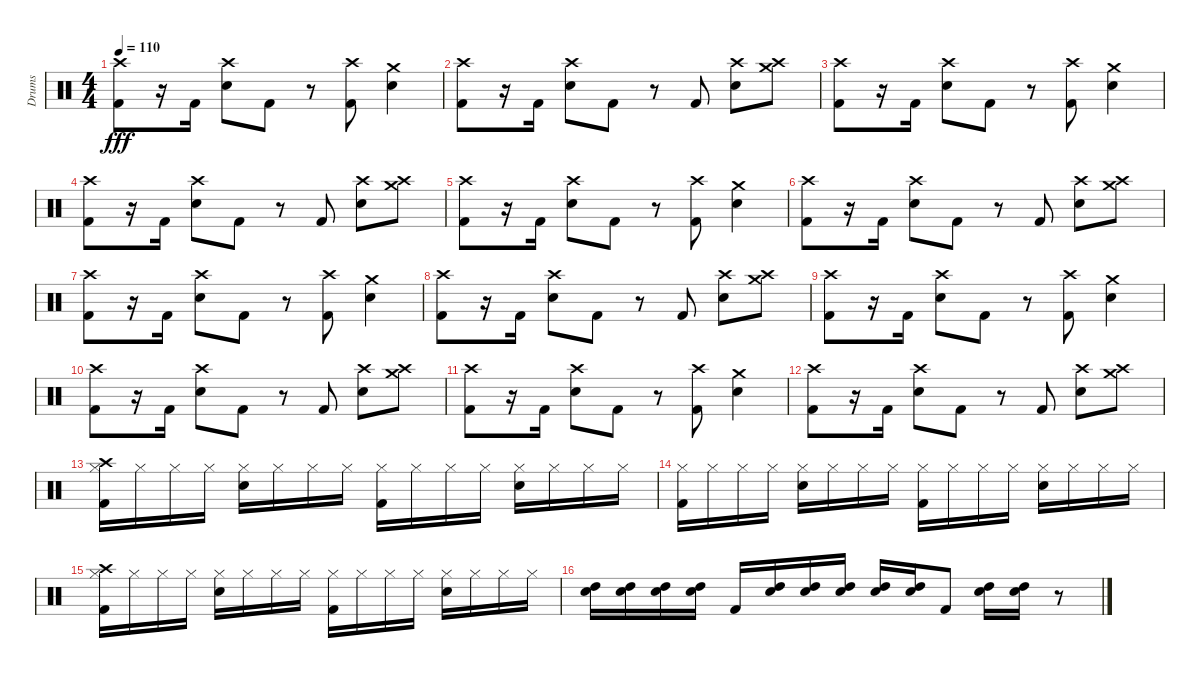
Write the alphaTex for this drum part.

\track ("Drums" "Drums") {instrument percussion}
\staff {score}
\articulation defaults
\ts (4 4)
\tempo 110
\clef neutral
\ks c
("Crash high (hit)" "Kick (hit) 2").8{dy fff} r.16 "Kick (hit) 2".16 ("Crash high (hit)" "Electric Snare (hit)").8 "Kick (hit) 2".8 r.8 ("Crash high (hit)" "Kick (hit) 2").8 ("Crash medium (hit)" "Electric Snare (hit)").4 |
("Crash high (hit)" "Kick (hit) 2").8 r.16 "Kick (hit) 2".16 ("Crash high (hit)" "Electric Snare (hit)").8 "Kick (hit) 2".8 r.8 "Kick (hit) 2".8 ("Crash high (hit)" "Electric Snare (hit)").8 ("Crash high (hit)" "Crash medium (hit)").8 |
("Crash high (hit)" "Kick (hit) 2").8 r.16 "Kick (hit) 2".16 ("Crash high (hit)" "Electric Snare (hit)").8 "Kick (hit) 2".8 r.8 ("Crash high (hit)" "Kick (hit) 2").8 ("Crash medium (hit)" "Electric Snare (hit)").4 |
("Crash high (hit)" "Kick (hit) 2").8 r.16 "Kick (hit) 2".16 ("Crash high (hit)" "Electric Snare (hit)").8 "Kick (hit) 2".8 r.8 "Kick (hit) 2".8 ("Crash high (hit)" "Electric Snare (hit)").8 ("Crash high (hit)" "Crash medium (hit)").8 |
("Crash high (hit)" "Kick (hit) 2").8 r.16 "Kick (hit) 2".16 ("Crash high (hit)" "Electric Snare (hit)").8 "Kick (hit) 2".8 r.8 ("Crash high (hit)" "Kick (hit) 2").8 ("Crash medium (hit)" "Electric Snare (hit)").4 |
("Crash high (hit)" "Kick (hit) 2").8 r.16 "Kick (hit) 2".16 ("Crash high (hit)" "Electric Snare (hit)").8 "Kick (hit) 2".8 r.8 "Kick (hit) 2".8 ("Crash high (hit)" "Electric Snare (hit)").8 ("Crash high (hit)" "Crash medium (hit)").8 |
("Crash high (hit)" "Kick (hit) 2").8 r.16 "Kick (hit) 2".16 ("Crash high (hit)" "Electric Snare (hit)").8 "Kick (hit) 2".8 r.8 ("Crash high (hit)" "Kick (hit) 2").8 ("Crash medium (hit)" "Electric Snare (hit)").4 |
("Crash high (hit)" "Kick (hit) 2").8 r.16 "Kick (hit) 2".16 ("Crash high (hit)" "Electric Snare (hit)").8 "Kick (hit) 2".8 r.8 "Kick (hit) 2".8 ("Crash high (hit)" "Electric Snare (hit)").8 ("Crash high (hit)" "Crash medium (hit)").8 |
("Crash high (hit)" "Kick (hit) 2").8 r.16 "Kick (hit) 2".16 ("Crash high (hit)" "Electric Snare (hit)").8 "Kick (hit) 2".8 r.8 ("Crash high (hit)" "Kick (hit) 2").8 ("Crash medium (hit)" "Electric Snare (hit)").4 |
("Crash high (hit)" "Kick (hit) 2").8 r.16 "Kick (hit) 2".16 ("Crash high (hit)" "Electric Snare (hit)").8 "Kick (hit) 2".8 r.8 "Kick (hit) 2".8 ("Crash high (hit)" "Electric Snare (hit)").8 ("Crash high (hit)" "Crash medium (hit)").8 |
("Crash high (hit)" "Kick (hit) 2").8 r.16 "Kick (hit) 2".16 ("Crash high (hit)" "Electric Snare (hit)").8 "Kick (hit) 2".8 r.8 ("Crash high (hit)" "Kick (hit) 2").8 ("Crash medium (hit)" "Electric Snare (hit)").4 |
("Crash high (hit)" "Kick (hit) 2").8 r.16 "Kick (hit) 2".16 ("Crash high (hit)" "Electric Snare (hit)").8 "Kick (hit) 2".8 r.8 "Kick (hit) 2".8 ("Crash high (hit)" "Electric Snare (hit)").8 ("Crash high (hit)" "Crash medium (hit)").8 |
("Crash high (hit)" "Hi-Hat (closed)" "Kick (hit) 2").16 "Hi-Hat (closed)".16 "Hi-Hat (closed)".16 "Hi-Hat (closed)".16 ("Hi-Hat (closed)" "Electric Snare (hit)").16 "Hi-Hat (closed)".16 "Hi-Hat (closed)".16 "Hi-Hat (closed)".16 ("Hi-Hat (closed)" "Kick (hit) 2").16 "Hi-Hat (closed)".16 "Hi-Hat (closed)".16 "Hi-Hat (closed)".16 ("Hi-Hat (closed)" "Electric Snare (hit)").16 "Hi-Hat (closed)".16 "Hi-Hat (closed)".16 "Hi-Hat (closed)".16 |
("Hi-Hat (closed)" "Kick (hit) 2").16 "Hi-Hat (closed)".16 "Hi-Hat (closed)".16 "Hi-Hat (closed)".16 ("Hi-Hat (closed)" "Electric Snare (hit)").16 "Hi-Hat (closed)".16 "Hi-Hat (closed)".16 "Hi-Hat (closed)".16 ("Hi-Hat (closed)" "Kick (hit) 2").16 "Hi-Hat (closed)".16 "Hi-Hat (closed)".16 "Hi-Hat (closed)".16 ("Hi-Hat (closed)" "Electric Snare (hit)").16 "Hi-Hat (closed)".16 "Hi-Hat (closed)".16 "Hi-Hat (closed)".16 |
("Crash high (hit)" "Hi-Hat (closed)" "Kick (hit) 2").16 "Hi-Hat (closed)".16 "Hi-Hat (closed)".16 "Hi-Hat (closed)".16 ("Hi-Hat (closed)" "Electric Snare (hit)").16 "Hi-Hat (closed)".16 "Hi-Hat (closed)".16 "Hi-Hat (closed)".16 ("Hi-Hat (closed)" "Kick (hit) 2").16 "Hi-Hat (closed)".16 "Hi-Hat (closed)".16 "Hi-Hat (closed)".16 ("Hi-Hat (closed)" "Electric Snare (hit)").16 "Hi-Hat (closed)".16 "Hi-Hat (closed)".16 "Hi-Hat (closed)".16 |
("High Tom (hit)" "Electric Snare (hit)").16 ("High Tom (hit)" "Electric Snare (hit)").16 ("High Tom (hit)" "Electric Snare (hit)").16 ("High Tom (hit)" "Electric Snare (hit)").16 "Kick (hit) 2".16 ("High Tom (hit)" "Electric Snare (hit)").16 ("High Tom (hit)" "Electric Snare (hit)").16 ("High Tom (hit)" "Electric Snare (hit)").16 ("High Tom (hit)" "Electric Snare (hit)").16 ("High Tom (hit)" "Electric Snare (hit)").16 "Kick (hit) 2".8 ("High Tom (hit)" "Electric Snare (hit)").16 ("High Tom (hit)" "Electric Snare (hit)").16 r.8
